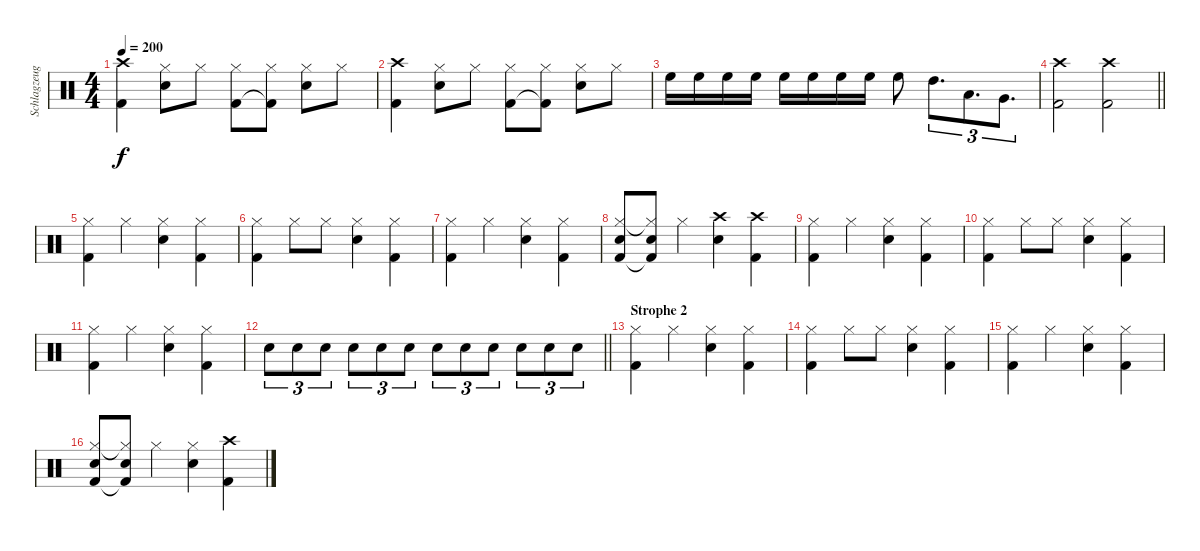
\track ("Schlagzeug" "Schlagzeug") {instrument percussion}
\staff {score}
\articulation defaults
\ts (4 4)
\tempo 200
\clef neutral
\ks c
("Crash high (hit)" "Kick (hit) 2").4{dy f} ("Hi-Hat (closed)" "Electric Snare (hit)").8 "Hi-Hat (closed)".8 ("Hi-Hat (closed)" "Kick (hit) 2").8 ("Hi-Hat (closed)" "Kick (hit) 2"{t}).8 ("Hi-Hat (closed)" "Electric Snare (hit)").8 "Hi-Hat (closed)".8 |
("Crash high (hit)" "Kick (hit) 2").4 ("Hi-Hat (closed)" "Electric Snare (hit)").8 "Hi-Hat (closed)".8 ("Hi-Hat (closed)" "Kick (hit) 2").8 ("Hi-Hat (closed)" "Kick (hit) 2"{t}).8 ("Hi-Hat (closed)" "Electric Snare (hit)").8 "Hi-Hat (closed)".8 |
"High Floor Tom (hit)".16 "High Floor Tom (hit)".16 "High Floor Tom (hit)".16 "High Floor Tom (hit)".16 "High Floor Tom (hit)".16 "High Floor Tom (hit)".16 "High Floor Tom (hit)".16 "High Floor Tom (hit)".16 "High Floor Tom (hit)".8 "High Tom (hit)".8{d tu (3 2)} "Low Tom (hit)".8{d tu (3 2)} "Very Low Tom (hit)".8{d tu (3 2)} |
\barLineRight lightlight
("Crash high (hit)" "Kick (hit) 2").2 ("Crash high (hit)" "Kick (hit) 2").2 |
("Hi-Hat (closed)" "Kick (hit) 2").4 "Hi-Hat (closed)".4 ("Hi-Hat (closed)" "Snare (hit) 2").4 ("Hi-Hat (closed)" "Kick (hit) 2").4 |
("Hi-Hat (closed)" "Kick (hit) 2").4 "Hi-Hat (closed)".8 "Hi-Hat (closed)".8 ("Hi-Hat (closed)" "Snare (hit) 2").4 ("Hi-Hat (closed)" "Kick (hit) 2").4 |
("Hi-Hat (closed)" "Kick (hit) 2").4 "Hi-Hat (closed)".4 ("Hi-Hat (closed)" "Snare (hit) 2").4 ("Hi-Hat (closed)" "Kick (hit) 2").4 |
("Hi-Hat (closed)" "Snare (hit) 2" "Kick (hit) 2").8 ("Hi-Hat (closed)"{t} "Snare (hit) 2" "Kick (hit) 2"{t}).8 "Hi-Hat (closed)".4 ("Crash high (hit)" "Snare (hit) 2").4 ("Crash high (hit)" "Kick (hit) 2").4 |
("Hi-Hat (closed)" "Kick (hit) 2").4 "Hi-Hat (closed)".4 ("Hi-Hat (closed)" "Snare (hit) 2").4 ("Hi-Hat (closed)" "Kick (hit) 2").4 |
("Hi-Hat (closed)" "Kick (hit) 2").4 "Hi-Hat (closed)".8 "Hi-Hat (closed)".8 ("Hi-Hat (closed)" "Snare (hit) 2").4 ("Hi-Hat (closed)" "Kick (hit) 2").4 |
("Hi-Hat (closed)" "Kick (hit) 2").4 "Hi-Hat (closed)".4 ("Hi-Hat (closed)" "Snare (hit) 2").4 ("Hi-Hat (closed)" "Kick (hit) 2").4 |
\barLineRight lightlight "Electric Snare (hit)".8{tu (3 2)} "Electric Snare (hit)".8{tu (3 2)} "Electric Snare (hit)".8{tu (3 2)} "Electric Snare (hit)".8{tu (3 2)} "Electric Snare (hit)".8{tu (3 2)} "Electric Snare (hit)".8{tu (3 2)} "Snare (hit) 2".8{tu (3 2)} "Snare (hit) 2".8{tu (3 2)} "Snare (hit) 2".8{tu (3 2)} "Snare (hit) 2".8{tu (3 2)} "Snare (hit) 2".8{tu (3 2)} "Snare (hit) 2".8{tu (3 2)}
|
\section ("" "Strophe 2")
("Hi-Hat (closed)" "Kick (hit) 2").4 "Hi-Hat (closed)".4 ("Hi-Hat (closed)" "Snare (hit) 2").4 ("Hi-Hat (closed)" "Kick (hit) 2").4 |
("Hi-Hat (closed)" "Kick (hit) 2").4 "Hi-Hat (closed)".8 "Hi-Hat (closed)".8 ("Hi-Hat (closed)" "Snare (hit) 2").4 ("Hi-Hat (closed)" "Kick (hit) 2").4 |
("Hi-Hat (closed)" "Kick (hit) 2").4 "Hi-Hat (closed)".4 ("Hi-Hat (closed)" "Snare (hit) 2").4 ("Hi-Hat (closed)" "Kick (hit) 2").4 |
("Hi-Hat (closed)" "Snare (hit) 2" "Kick (hit) 2").8 ("Hi-Hat (closed)"{t} "Snare (hit) 2" "Kick (hit) 2"{t}).8 "Hi-Hat (closed)".4 ("Hi-Hat (closed)" "Snare (hit) 2").4 ("Crash high (hit)" "Kick (hit) 2").4
